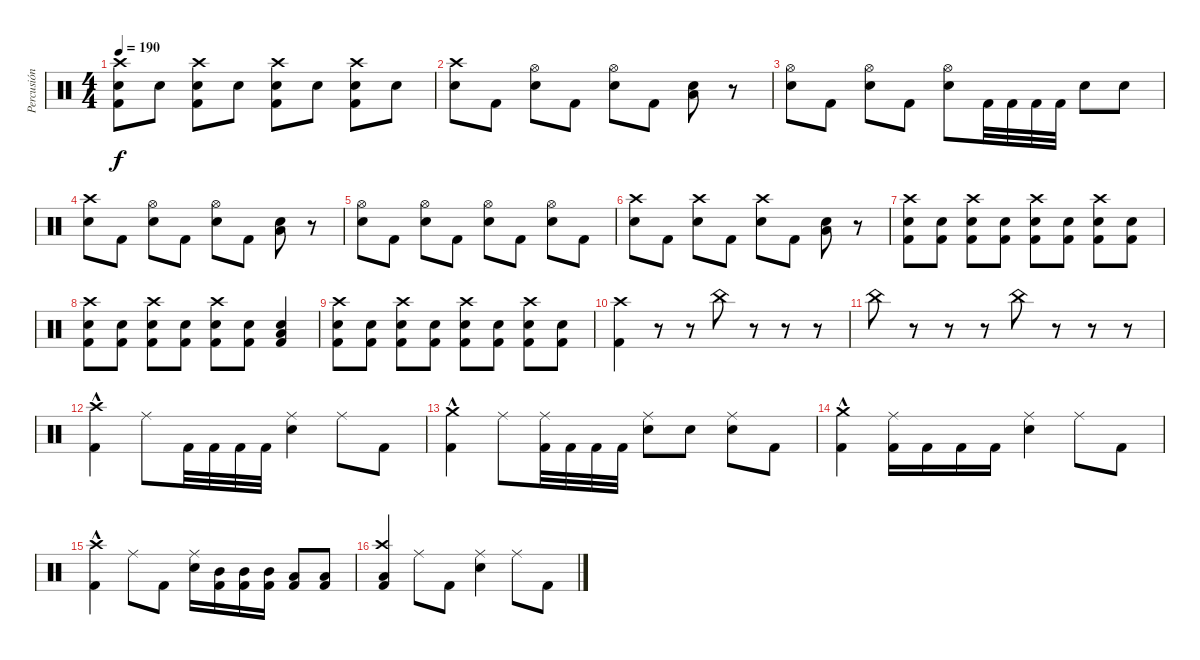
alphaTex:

\track ("Percusión" "Percusión") {instrument percussion}
\staff {score}
\articulation defaults
\ts (4 4)
\tempo 190
\clef neutral
\ks c
("Kick (hit) 2" "Snare (hit) 2" "Crash high (hit)").8{dy f} "Snare (hit) 2".8 ("Kick (hit) 2" "Snare (hit) 2" "Crash high (hit)").8 "Snare (hit) 2".8 ("Kick (hit) 2" "Snare (hit) 2" "Crash high (hit)").8 "Snare (hit) 2".8 ("Kick (hit) 2" "Snare (hit) 2" "Crash high (hit)").8 "Snare (hit) 2".8 |
("Snare (hit) 2" "Crash high (hit)").8 "Kick (hit) 2".8 ("Snare (hit) 2" "Hi-Hat (open)").8 "Kick (hit) 2".8 ("Snare (hit) 2" "Hi-Hat (open)").8 "Kick (hit) 2".8 ("Snare (hit) 2" "Low Tom (hit)").8 r.8 |
("Snare (hit) 2" "Hi-Hat (open)").8 "Kick (hit) 2".8 ("Snare (hit) 2" "Hi-Hat (open)").8 "Kick (hit) 2".8 ("Snare (hit) 2" "Hi-Hat (open)").8 "Kick (hit) 2".32 "Kick (hit) 2".32 "Kick (hit) 2".32 "Kick (hit) 2".32 "Snare (hit) 2".8 "Snare (hit) 2".8 |
("Snare (hit) 2" "Crash high (hit)").8 "Kick (hit) 2".8 ("Snare (hit) 2" "Hi-Hat (open)").8 "Kick (hit) 2".8 ("Snare (hit) 2" "Hi-Hat (open)").8 "Kick (hit) 2".8 ("Snare (hit) 2" "Low Tom (hit)").8 r.8 |
("Snare (hit) 2" "Hi-Hat (open)").8 "Kick (hit) 2".8 ("Snare (hit) 2" "Hi-Hat (open)").8 "Kick (hit) 2".8 ("Snare (hit) 2" "Hi-Hat (open)").8 "Kick (hit) 2".8 ("Snare (hit) 2" "Hi-Hat (open)").8 "Kick (hit) 2".8 |
("Snare (hit) 2" "Crash high (hit)").8 "Kick (hit) 2".8 ("Snare (hit) 2" "Crash high (hit)").8 "Kick (hit) 2".8 ("Snare (hit) 2" "Crash high (hit)").8 "Kick (hit) 2".8 ("Snare (hit) 2" "Low Tom (hit)").8 r.8 |
("Kick (hit) 2" "Snare (hit) 2" "Crash high (hit)").8 ("Kick (hit) 2" "Snare (hit) 2").8 ("Kick (hit) 2" "Snare (hit) 2" "Crash high (hit)").8 ("Kick (hit) 2" "Snare (hit) 2").8 ("Kick (hit) 2" "Snare (hit) 2" "Crash high (hit)").8 ("Kick (hit) 2" "Snare (hit) 2").8 ("Kick (hit) 2" "Snare (hit) 2" "Crash high (hit)").8 ("Kick (hit) 2" "Snare (hit) 2").8 |
("Kick (hit) 2" "Snare (hit) 2" "Crash high (hit)").8 ("Kick (hit) 2" "Snare (hit) 2").8 ("Kick (hit) 2" "Snare (hit) 2" "Crash high (hit)").8 ("Kick (hit) 2" "Snare (hit) 2").8 ("Kick (hit) 2" "Snare (hit) 2" "Crash high (hit)").8 ("Kick (hit) 2" "Snare (hit) 2").8 ("Kick (hit) 2" "Snare (hit) 2" "Low Tom (hit)").4 |
("Kick (hit) 2" "Snare (hit) 2" "Crash high (hit)").8 ("Kick (hit) 2" "Snare (hit) 2").8 ("Kick (hit) 2" "Snare (hit) 2" "Crash high (hit)").8 ("Kick (hit) 2" "Snare (hit) 2").8 ("Kick (hit) 2" "Snare (hit) 2" "Crash high (hit)").8 ("Kick (hit) 2" "Snare (hit) 2").8 ("Kick (hit) 2" "Snare (hit) 2" "Crash high (hit)").8 ("Kick (hit) 2" "Snare (hit) 2").8 |
("Kick (hit) 2" "Crash high (hit)").4 r.8 r.8 "China (hit)".8 r.8 r.8 r.8 |
"China (hit)".8 r.8 r.8 r.8 "China (hit)".8 r.8 r.8 r.8 |
("Kick (hit) 2"{hac} "Crash high (hit)").4 "Ride (middle)".8 "Kick (hit) 2".32 "Kick (hit) 2".32 "Kick (hit) 2".32 "Kick (hit) 2".32 ("Snare (hit) 2" "Ride (middle)").4 "Ride (middle)".8 "Kick (hit) 2".8 |
("Kick (hit) 2"{hac} "Crash medium (hit)").4 "Ride (middle)".8 ("Kick (hit) 2" "Ride (middle)").32 "Kick (hit) 2".32 "Kick (hit) 2".32 "Kick (hit) 2".32 ("Snare (hit) 2" "Ride (middle)").8 "Snare (hit) 2".8 ("Snare (hit) 2" "Ride (middle)").8 "Kick (hit) 2".8 |
("Kick (hit) 2"{hac} "Crash medium (hit)").4 ("Kick (hit) 2" "Ride (middle)").16 "Kick (hit) 2".16 "Kick (hit) 2".16 "Kick (hit) 2".16 ("Snare (hit) 2" "Ride (middle)").4 "Ride (middle)".8 "Kick (hit) 2".8 |
("Kick (hit) 2"{hac} "Crash high (hit)").4 "Ride (middle)".8 "Kick (hit) 2".8 ("Snare (hit) 2" "Ride (middle)").16 ("Kick (hit) 2" "Mid Tom (hit)").16 ("Kick (hit) 2" "Mid Tom (hit)").16 ("Kick (hit) 2" "Mid Tom (hit)").16 ("Kick (hit) 2" "Low Tom (hit)").8 ("Kick (hit) 2" "Low Tom (hit)").8 |
("Kick (hit) 2" "Low Tom (hit)" "Crash high (hit)").4 "Ride (middle)".8 "Kick (hit) 2".8 ("Snare (hit) 2" "Ride (middle)").4 "Ride (middle)".8 "Kick (hit) 2".8
